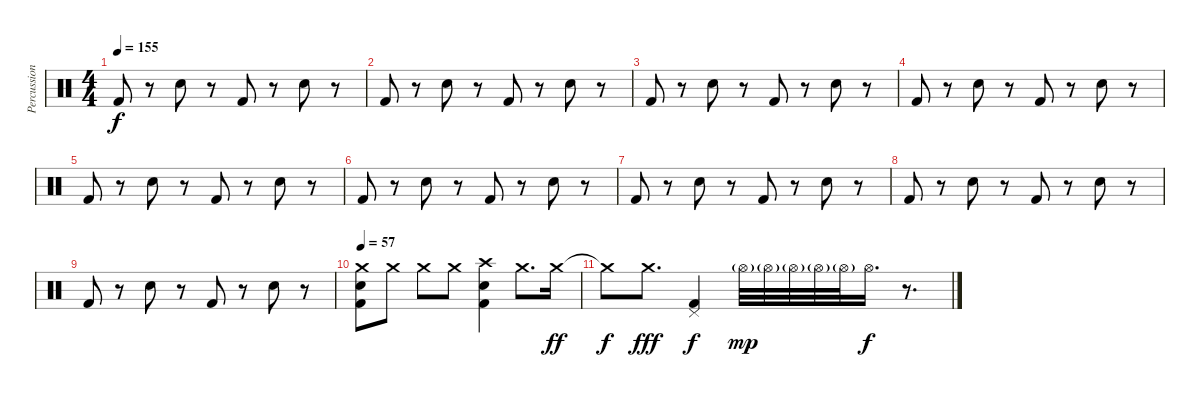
\track ("Percussions" "Percussion") {instrument percussion}
\staff {score}
\articulation defaults
\ts (4 4)
\tempo 155
\clef neutral
\ks c "Kick (hit) 2".8{dy f}
r.8 "Snare (hit) 2".8 r.8 "Kick (hit) 2".8 r.8 "Snare (hit) 2".8 r.8 |
"Kick (hit) 2".8 r.8 "Snare (hit) 2".8 r.8 "Kick (hit) 2".8 r.8 "Snare (hit) 2".8 r.8 |
"Kick (hit) 2".8 r.8 "Snare (hit) 2".8 r.8 "Kick (hit) 2".8 r.8 "Snare (hit) 2".8 r.8 |
"Kick (hit) 2".8 r.8 "Snare (hit) 2".8 r.8 "Kick (hit) 2".8 r.8 "Snare (hit) 2".8 r.8 |
"Kick (hit) 2".8 r.8 "Snare (hit) 2".8 r.8 "Kick (hit) 2".8 r.8 "Snare (hit) 2".8 r.8 |
"Kick (hit) 2".8 r.8 "Snare (hit) 2".8 r.8 "Kick (hit) 2".8 r.8 "Snare (hit) 2".8 r.8 |
"Kick (hit) 2".8 r.8 "Snare (hit) 2".8 r.8 "Kick (hit) 2".8 r.8 "Snare (hit) 2".8 r.8 |
"Kick (hit) 2".8 r.8 "Snare (hit) 2".8 r.8 "Kick (hit) 2".8 r.8 "Snare (hit) 2".8 r.8 |
"Kick (hit) 2".8 r.8 "Snare (hit) 2".8 r.8 "Kick (hit) 2".8 r.8 "Snare (hit) 2".8 r.8 |
\tempo 57
("Crash medium (hit)" "Snare (hit) 2" "Kick (hit) 2").8 "Crash medium (hit)".8 "Crash medium (hit)".8 "Crash medium (hit)".8 ("Crash high (hit)" "Snare (hit) 2" "Kick (hit) 2").4 "Crash medium (hit)".8{d} "Crash medium (hit)".16{dy ff} |
"Crash medium (hit)"{t}.8{dy f} "Crash medium (hit)".8{d dy fff} ("Pedal Hi-Hat (hit)" "Kick (hit) 2").4{dy f} "Hi-Hat (open)"{g}.32{dy mp} "Hi-Hat (open)"{g}.32 "Hi-Hat (open)"{g}.32 "Hi-Hat (open)"{g}.32 "Hi-Hat (open)"{g}.32 "Hi-Hat (open)".16{d dy f} r.8{d}
